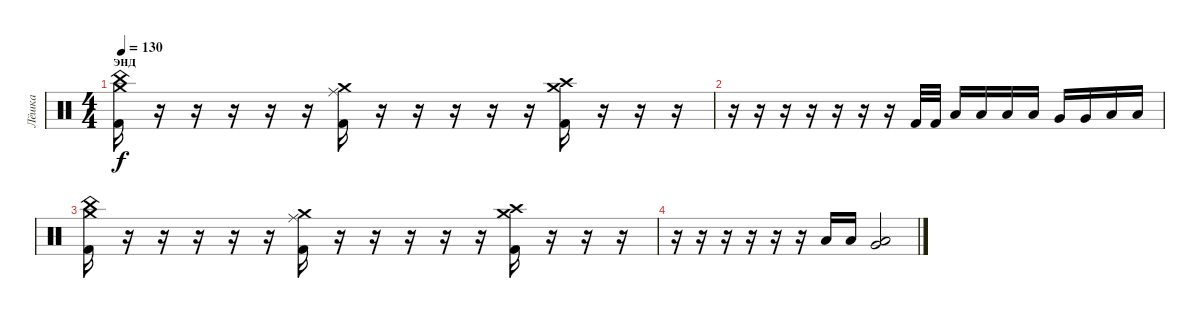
\track ("Лёшка" "Лёшка") {instrument percussion}
\staff {score}
\articulation defaults
\ts (4 4)
\section ("" "энд")
\tempo 130
\clef neutral
\ks c
("Crash medium (hit)" "China (hit)" "Kick (hit) 2").16{dy f} r.16 r.16 r.16 r.16 r.16 ("Crash medium (hit)" "Ride (middle)" "Kick (hit) 2").16 r.16 r.16 r.16 r.16 r.16 ("Crash medium (hit)" "Crash high (hit)" "Kick (hit) 2").16 r.16 r.16 r.16 |
r.16 r.16 r.16 r.16 r.16 r.16 r.16 "Kick (hit) 2".32 "Kick (hit) 2".32 "Low Tom (hit)".16 "Low Tom (hit)".16 "Low Tom (hit)".16 "Low Tom (hit)".16 "Very Low Tom (hit)".16 "Very Low Tom (hit)".16 "Low Floor Tom (hit)".16 "Low Floor Tom (hit)".16 |
("Crash medium (hit)" "China (hit)" "Kick (hit) 2").16 r.16 r.16 r.16 r.16 r.16 ("Crash medium (hit)" "Ride (middle)" "Kick (hit) 2").16 r.16 r.16 r.16 r.16 r.16 ("Crash medium (hit)" "Crash high (hit)" "Kick (hit) 2").16 r.16 r.16 r.16 |
r.16 r.16 r.16 r.16 r.16 r.16 "Low Tom (hit)".16 "Low Tom (hit)".16 ("Low Tom (hit)" "Very Low Tom (hit)").2
